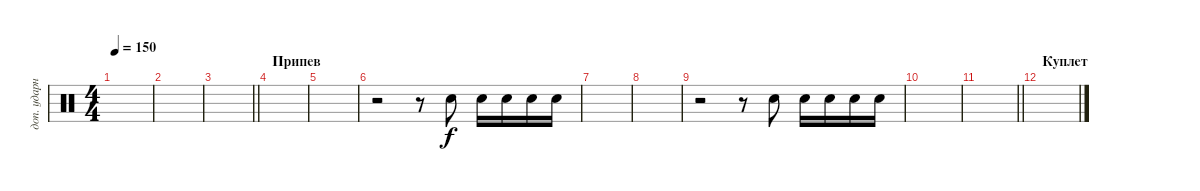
\track ("доп. ударные" "доп. ударн") {instrument percussion}
\staff {score}
\articulation defaults
\ts (4 4)
\tempo 150
\clef neutral
\ks c
|
|
\barLineRight lightlight
|
\section ("" "Припев")
|
|
r.2 r.8 "Snare (hit) 2".8 "Snare (hit) 2".16 "Snare (hit) 2".16 "Snare (hit) 2".16 "Snare (hit) 2".16 |
|
|
r.2 r.8 "Snare (hit) 2".8 "Snare (hit) 2".16 "Snare (hit) 2".16 "Snare (hit) 2".16 "Snare (hit) 2".16 |
|
\barLineRight lightlight
|
\section ("" "Куплет")
